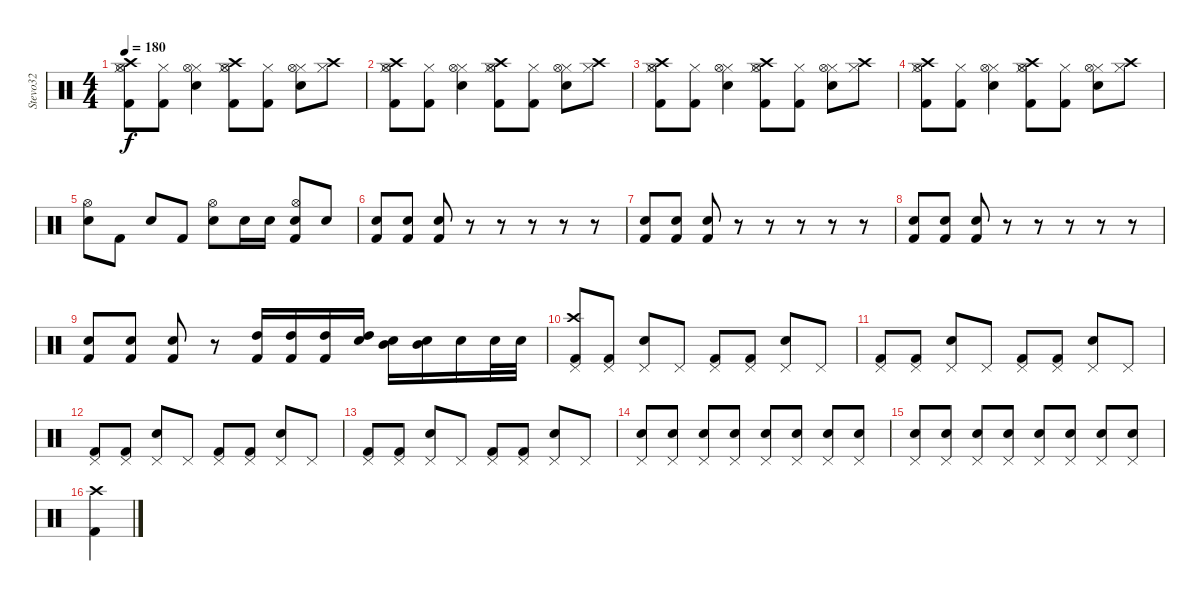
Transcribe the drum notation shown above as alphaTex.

\track ("Stevo32" "Stevo32") {instrument percussion}
\staff {score}
\articulation defaults
\ts (4 4)
\tempo 180
\clef neutral
\ks c
("Hi-Hat (closed)" "Kick (hit) 2" "Hi-Hat (open)" "Crash high (hit)").8{dy f} ("Hi-Hat (closed)" "Kick (hit) 2").8 ("Hi-Hat (closed)" "Electric Snare (hit)" "Hi-Hat (open)").4 ("Hi-Hat (closed)" "Kick (hit) 2" "Hi-Hat (open)" "Crash high (hit)").8 ("Hi-Hat (closed)" "Kick (hit) 2").8 ("Hi-Hat (closed)" "Electric Snare (hit)" "Hi-Hat (open)").8 ("Hi-Hat (closed)" "Crash high (hit)").8 |
("Hi-Hat (closed)" "Kick (hit) 2" "Hi-Hat (open)" "Crash high (hit)").8 ("Hi-Hat (closed)" "Kick (hit) 2").8 ("Hi-Hat (closed)" "Electric Snare (hit)" "Hi-Hat (open)").4 ("Hi-Hat (closed)" "Kick (hit) 2" "Hi-Hat (open)" "Crash high (hit)").8 ("Hi-Hat (closed)" "Kick (hit) 2").8 ("Hi-Hat (closed)" "Electric Snare (hit)" "Hi-Hat (open)").8 ("Hi-Hat (closed)" "Crash high (hit)").8 |
("Hi-Hat (closed)" "Kick (hit) 2" "Hi-Hat (open)" "Crash high (hit)").8 ("Hi-Hat (closed)" "Kick (hit) 2").8 ("Hi-Hat (closed)" "Electric Snare (hit)" "Hi-Hat (open)").4 ("Hi-Hat (closed)" "Kick (hit) 2" "Hi-Hat (open)" "Crash high (hit)").8 ("Hi-Hat (closed)" "Kick (hit) 2").8 ("Hi-Hat (closed)" "Electric Snare (hit)" "Hi-Hat (open)").8 ("Hi-Hat (closed)" "Crash high (hit)").8 |
("Hi-Hat (closed)" "Kick (hit) 2" "Hi-Hat (open)" "Crash high (hit)").8 ("Hi-Hat (closed)" "Kick (hit) 2").8 ("Hi-Hat (closed)" "Electric Snare (hit)" "Hi-Hat (open)").4 ("Hi-Hat (closed)" "Kick (hit) 2" "Hi-Hat (open)" "Crash high (hit)").8 ("Hi-Hat (closed)" "Kick (hit) 2").8 ("Hi-Hat (closed)" "Electric Snare (hit)" "Hi-Hat (open)").8 ("Hi-Hat (closed)" "Crash high (hit)").8 |
("Electric Snare (hit)" "Hi-Hat (open)").8 "Kick (hit) 2".8 "Electric Snare (hit)".8 "Kick (hit) 2".8 ("Electric Snare (hit)" "Hi-Hat (open)").8 "Electric Snare (hit)".16 "Electric Snare (hit)".16 ("Electric Snare (hit)" "Kick (hit) 2" "Hi-Hat (open)").8 "Electric Snare (hit)".8 |
("Electric Snare (hit)" "Kick (hit) 2").8 ("Electric Snare (hit)" "Kick (hit) 2").8 ("Electric Snare (hit)" "Kick (hit) 2").8 r.8 r.8 r.8 r.8 r.8 |
("Electric Snare (hit)" "Kick (hit) 2").8 ("Electric Snare (hit)" "Kick (hit) 2").8 ("Electric Snare (hit)" "Kick (hit) 2").8 r.8 r.8 r.8 r.8 r.8 |
("Electric Snare (hit)" "Kick (hit) 2").8 ("Electric Snare (hit)" "Kick (hit) 2").8 ("Electric Snare (hit)" "Kick (hit) 2").8 r.8 r.8 r.8 r.8 r.8 |
("Electric Snare (hit)" "Kick (hit) 2").8 ("Electric Snare (hit)" "Kick (hit) 2").8 ("Electric Snare (hit)" "Kick (hit) 2").8 r.8 ("High Tom (hit)" "Kick (hit) 2").16 ("High Tom (hit)" "Kick (hit) 2").16 ("High Tom (hit)" "Kick (hit) 2").16 ("High Tom (hit)" "Electric Snare (hit)").16 ("Mid Tom (hit)" "Electric Snare (hit)").16 ("Mid Tom (hit)" "Electric Snare (hit)").16 "Electric Snare (hit)".16 "Electric Snare (hit)".32 "Electric Snare (hit)".32 |
("Pedal Hi-Hat (hit)" "Crash high (hit)" "Kick (hit) 2").8 ("Pedal Hi-Hat (hit)" "Kick (hit) 2").8 ("Pedal Hi-Hat (hit)" "Electric Snare (hit)").8 "Pedal Hi-Hat (hit)".8 ("Pedal Hi-Hat (hit)" "Kick (hit) 2").8 ("Pedal Hi-Hat (hit)" "Kick (hit) 2").8 ("Pedal Hi-Hat (hit)" "Electric Snare (hit)").8 "Pedal Hi-Hat (hit)".8 |
("Pedal Hi-Hat (hit)" "Kick (hit) 2").8 ("Pedal Hi-Hat (hit)" "Kick (hit) 2").8 ("Pedal Hi-Hat (hit)" "Electric Snare (hit)").8 "Pedal Hi-Hat (hit)".8 ("Pedal Hi-Hat (hit)" "Kick (hit) 2").8 ("Pedal Hi-Hat (hit)" "Kick (hit) 2").8 ("Pedal Hi-Hat (hit)" "Electric Snare (hit)").8 "Pedal Hi-Hat (hit)".8 |
("Pedal Hi-Hat (hit)" "Kick (hit) 2").8 ("Pedal Hi-Hat (hit)" "Kick (hit) 2").8 ("Pedal Hi-Hat (hit)" "Electric Snare (hit)").8 "Pedal Hi-Hat (hit)".8 ("Pedal Hi-Hat (hit)" "Kick (hit) 2").8 ("Pedal Hi-Hat (hit)" "Kick (hit) 2").8 ("Pedal Hi-Hat (hit)" "Electric Snare (hit)").8 "Pedal Hi-Hat (hit)".8 |
("Pedal Hi-Hat (hit)" "Kick (hit) 2").8 ("Pedal Hi-Hat (hit)" "Kick (hit) 2").8 ("Pedal Hi-Hat (hit)" "Electric Snare (hit)").8 "Pedal Hi-Hat (hit)".8 ("Pedal Hi-Hat (hit)" "Kick (hit) 2").8 ("Pedal Hi-Hat (hit)" "Kick (hit) 2").8 ("Pedal Hi-Hat (hit)" "Electric Snare (hit)").8 "Pedal Hi-Hat (hit)".8 |
("Pedal Hi-Hat (hit)" "Electric Snare (hit)").8 ("Pedal Hi-Hat (hit)" "Electric Snare (hit)").8 ("Pedal Hi-Hat (hit)" "Electric Snare (hit)").8 ("Pedal Hi-Hat (hit)" "Electric Snare (hit)").8 ("Pedal Hi-Hat (hit)" "Electric Snare (hit)").8 ("Pedal Hi-Hat (hit)" "Electric Snare (hit)").8 ("Pedal Hi-Hat (hit)" "Electric Snare (hit)").8 ("Pedal Hi-Hat (hit)" "Electric Snare (hit)").8 |
("Pedal Hi-Hat (hit)" "Electric Snare (hit)").8 ("Pedal Hi-Hat (hit)" "Electric Snare (hit)").8 ("Pedal Hi-Hat (hit)" "Electric Snare (hit)").8 ("Pedal Hi-Hat (hit)" "Electric Snare (hit)").8 ("Pedal Hi-Hat (hit)" "Electric Snare (hit)").8 ("Pedal Hi-Hat (hit)" "Electric Snare (hit)").8 ("Pedal Hi-Hat (hit)" "Electric Snare (hit)").8 ("Pedal Hi-Hat (hit)" "Electric Snare (hit)").8 |
("Crash high (hit)" "Kick (hit) 2").4
